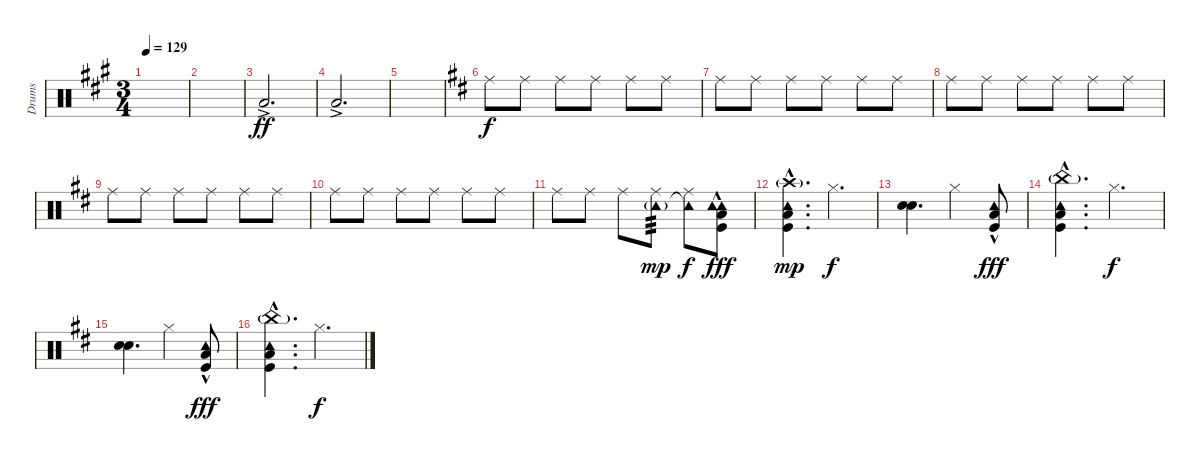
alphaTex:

\track ("Drums" "Drums") {instrument percussion}
\staff {score}
\articulation defaults
\ts (3 4)
\tempo 129
\clef neutral
\ks f#minor
|
|
"Low Floor Tom (hit)"{ac}.2{d dy ff} |
"Low Floor Tom (hit)"{ac}.2{d} |
|
\ks bminor "Ride (middle)".8{dy f} "Ride (middle)".8 "Ride (middle)".8 "Ride (middle)".8 "Ride (middle)".8 "Ride (middle)".8
|
"Ride (middle)".8 "Ride (middle)".8 "Ride (middle)".8 "Ride (middle)".8 "Ride (middle)".8 "Ride (middle)".8 |
"Ride (middle)".8 "Ride (middle)".8 "Ride (middle)".8 "Ride (middle)".8 "Ride (middle)".8 "Ride (middle)".8 |
"Ride (middle)".8 "Ride (middle)".8 "Ride (middle)".8 "Ride (middle)".8 "Ride (middle)".8 "Ride (middle)".8 |
"Ride (middle)".8 "Ride (middle)".8 "Ride (middle)".8 "Ride (middle)".8 "Ride (middle)".8 "Ride (middle)".8 |
"Ride (middle)".8 "Ride (middle)".8 "Ride (middle)".8 ("Ride (middle)" "Tambourine (hit)"{g}).8{tp 3 dy mp} ("Ride (middle)" "Tambourine (hit)"{t}).8{dy f} ("Kick (hit)"{hac} "Low Floor Tom (hit)"{hac} "Tambourine (hit)"{hac} "Tambourine (hit)").8{dy fff volume 16} |
("Kick (hit)"{hac} "Low Floor Tom (hit)"{hac} "Tambourine (hit)"{hac} "Crash high (hit)"{g}).4{d dy mp} "Hi-Hat (closed)".4{d dy f} |
("Snare (hit) 2" "Electric Snare (hit)").4{d} "Hi-Hat (closed)".4 ("Kick (hit)"{hac} "Low Floor Tom (hit)"{hac} "Tambourine (hit)"{hac}).8{dy fff} |
("Kick (hit)"{hac} "Low Floor Tom (hit)"{hac} "China (hit)"{g} "Tambourine (hit)"{hac}).4{d} "Hi-Hat (closed)".4{d dy f} |
("Snare (hit) 2" "Electric Snare (hit)").4{d} "Hi-Hat (closed)".4 ("Kick (hit)"{hac} "Low Floor Tom (hit)"{hac} "Tambourine (hit)"{hac}).8{dy fff} |
("Kick (hit)"{hac} "Low Floor Tom (hit)"{hac} "China (hit)"{g} "Tambourine (hit)"{hac}).4{d} "Hi-Hat (closed)".4{d dy f}
